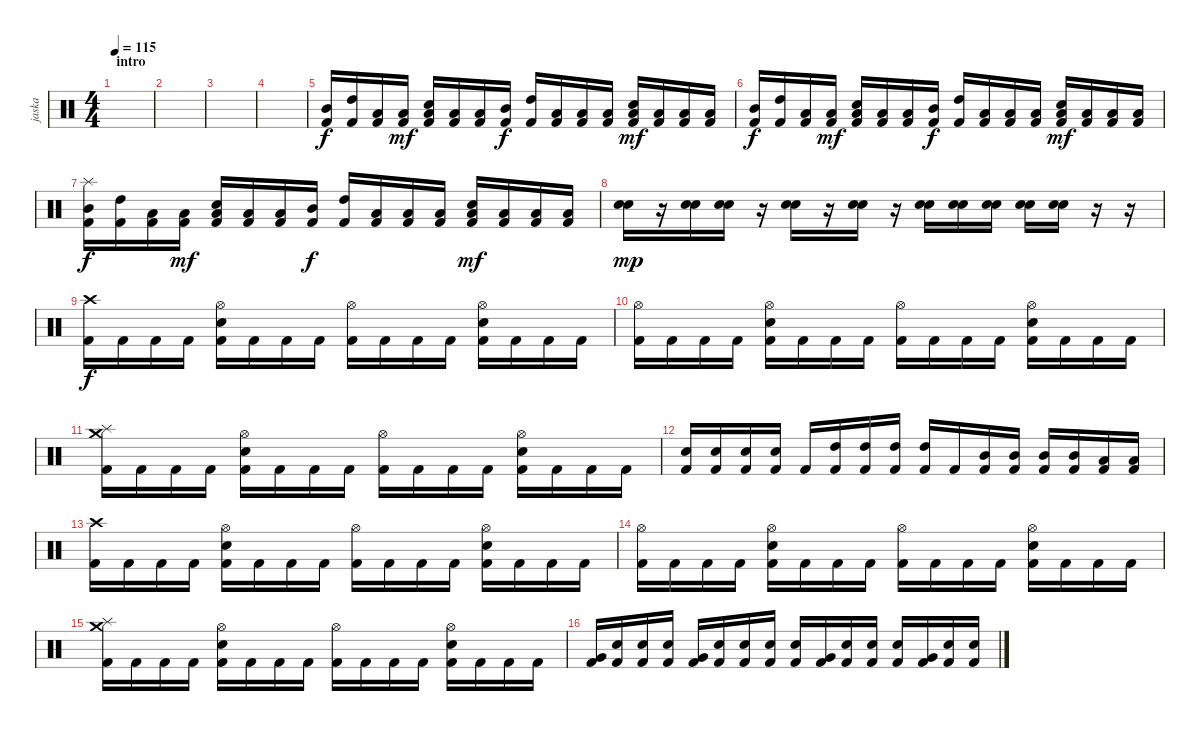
\track ("jaska" "jaska") {instrument percussion}
\staff {score}
\articulation defaults
\ts (4 4)
\section ("" "intro")
\tempo 115
\clef neutral
\ks c
|
|
|
|
("Mid Tom (hit)" "Kick (hit) 2").16 ("High Tom (hit)" "Kick (hit) 2").16 ("Low Tom (hit)" "Kick (hit) 2").16 ("Low Tom (hit)" "Kick (hit) 2").16{dy mf} ("Electric Snare (hit)" "Low Tom (hit)" "Kick (hit) 2").16 ("Low Tom (hit)" "Kick (hit) 2").16 ("Low Tom (hit)" "Kick (hit) 2").16 ("Mid Tom (hit)" "Kick (hit) 2").16{dy f} ("High Tom (hit)" "Kick (hit) 2").16 ("Low Tom (hit)" "Kick (hit) 2").16 ("Low Tom (hit)" "Kick (hit) 2").16 ("Low Tom (hit)" "Kick (hit) 2").16 ("Electric Snare (hit)" "Low Tom (hit)" "Kick (hit) 2").16{dy mf} ("Low Tom (hit)" "Kick (hit) 2").16 ("Low Tom (hit)" "Kick (hit) 2").16 ("Low Tom (hit)" "Kick (hit) 2").16 |
("Mid Tom (hit)" "Kick (hit) 2").16{dy f} ("High Tom (hit)" "Kick (hit) 2").16 ("Low Tom (hit)" "Kick (hit) 2").16 ("Low Tom (hit)" "Kick (hit) 2").16{dy mf} ("Electric Snare (hit)" "Low Tom (hit)" "Kick (hit) 2").16 ("Low Tom (hit)" "Kick (hit) 2").16 ("Low Tom (hit)" "Kick (hit) 2").16 ("Mid Tom (hit)" "Kick (hit) 2").16{dy f} ("High Tom (hit)" "Kick (hit) 2").16 ("Low Tom (hit)" "Kick (hit) 2").16 ("Low Tom (hit)" "Kick (hit) 2").16 ("Low Tom (hit)" "Kick (hit) 2").16 ("Electric Snare (hit)" "Low Tom (hit)" "Kick (hit) 2").16{dy mf} ("Low Tom (hit)" "Kick (hit) 2").16 ("Low Tom (hit)" "Kick (hit) 2").16 ("Low Tom (hit)" "Kick (hit) 2").16 |
("Splash (hit)" "Mid Tom (hit)" "Kick (hit) 2").16{dy f} ("High Tom (hit)" "Kick (hit) 2").16 ("Low Tom (hit)" "Kick (hit) 2").16 ("Low Tom (hit)" "Kick (hit) 2").16{dy mf} ("Electric Snare (hit)" "Low Tom (hit)" "Kick (hit) 2").16 ("Low Tom (hit)" "Kick (hit) 2").16 ("Low Tom (hit)" "Kick (hit) 2").16 ("Mid Tom (hit)" "Kick (hit) 2").16{dy f} ("High Tom (hit)" "Kick (hit) 2").16 ("Low Tom (hit)" "Kick (hit) 2").16 ("Low Tom (hit)" "Kick (hit) 2").16 ("Low Tom (hit)" "Kick (hit) 2").16 ("Electric Snare (hit)" "Low Tom (hit)" "Kick (hit) 2").16{dy mf} ("Low Tom (hit)" "Kick (hit) 2").16 ("Low Tom (hit)" "Kick (hit) 2").16 ("Low Tom (hit)" "Kick (hit) 2").16 |
("Snare (hit) 2" "Electric Snare (hit)").16{dy mp} r.16 ("Snare (hit) 2" "Electric Snare (hit)").16 ("Snare (hit) 2" "Electric Snare (hit)").16 r.16 ("Snare (hit) 2" "Electric Snare (hit)").16 r.16 ("Snare (hit) 2" "Electric Snare (hit)").16 r.16 ("Snare (hit) 2" "Electric Snare (hit)").16 ("Snare (hit) 2" "Electric Snare (hit)").16 ("Snare (hit) 2" "Electric Snare (hit)").16 ("Snare (hit) 2" "Electric Snare (hit)").16 ("Snare (hit) 2" "Electric Snare (hit)").16 r.16 r.16 |
("Crash high (hit)" "Kick (hit) 2").16{dy f} "Kick (hit) 2".16 "Kick (hit) 2".16 "Kick (hit) 2".16 ("Hi-Hat (open)" "Electric Snare (hit)" "Kick (hit) 2").16 "Kick (hit) 2".16 "Kick (hit) 2".16 "Kick (hit) 2".16 ("Hi-Hat (open)" "Kick (hit) 2").16 "Kick (hit) 2".16 "Kick (hit) 2".16 "Kick (hit) 2".16 ("Hi-Hat (open)" "Electric Snare (hit)" "Kick (hit) 2").16 "Kick (hit) 2".16 "Kick (hit) 2".16 "Kick (hit) 2".16 |
("Hi-Hat (open)" "Kick (hit) 2").16 "Kick (hit) 2".16 "Kick (hit) 2".16 "Kick (hit) 2".16 ("Hi-Hat (open)" "Electric Snare (hit)" "Kick (hit) 2").16 "Kick (hit) 2".16 "Kick (hit) 2".16 "Kick (hit) 2".16 ("Hi-Hat (open)" "Kick (hit) 2").16 "Kick (hit) 2".16 "Kick (hit) 2".16 "Kick (hit) 2".16 ("Hi-Hat (open)" "Electric Snare (hit)" "Kick (hit) 2").16 "Kick (hit) 2".16 "Kick (hit) 2".16 "Kick (hit) 2".16 |
("Crash medium (hit)" "Splash (hit)" "Kick (hit) 2").16 "Kick (hit) 2".16 "Kick (hit) 2".16 "Kick (hit) 2".16 ("Hi-Hat (open)" "Electric Snare (hit)" "Kick (hit) 2").16 "Kick (hit) 2".16 "Kick (hit) 2".16 "Kick (hit) 2".16 ("Hi-Hat (open)" "Kick (hit) 2").16 "Kick (hit) 2".16 "Kick (hit) 2".16 "Kick (hit) 2".16 ("Hi-Hat (open)" "Electric Snare (hit)" "Kick (hit) 2").16 "Kick (hit) 2".16 "Kick (hit) 2".16 "Kick (hit) 2".16 |
("Electric Snare (hit)" "Kick (hit) 2").16 ("Electric Snare (hit)" "Kick (hit) 2").16 ("Electric Snare (hit)" "Kick (hit) 2").16 ("Electric Snare (hit)" "Kick (hit) 2").16 "Kick (hit) 2".16 ("High Tom (hit)" "Kick (hit) 2").16 ("High Tom (hit)" "Kick (hit) 2").16 ("High Tom (hit)" "Kick (hit) 2").16 ("High Tom (hit)" "Kick (hit) 2").16 "Kick (hit) 2".16 ("Mid Tom (hit)" "Kick (hit) 2").16 ("Mid Tom (hit)" "Kick (hit) 2").16 ("Mid Tom (hit)" "Kick (hit) 2").16 ("Mid Tom (hit)" "Kick (hit) 2").16 ("Low Tom (hit)" "Kick (hit) 2").16 ("Low Tom (hit)" "Kick (hit) 2").16 |
("Crash high (hit)" "Kick (hit) 2").16 "Kick (hit) 2".16 "Kick (hit) 2".16 "Kick (hit) 2".16 ("Hi-Hat (open)" "Electric Snare (hit)" "Kick (hit) 2").16 "Kick (hit) 2".16 "Kick (hit) 2".16 "Kick (hit) 2".16 ("Hi-Hat (open)" "Kick (hit) 2").16 "Kick (hit) 2".16 "Kick (hit) 2".16 "Kick (hit) 2".16 ("Hi-Hat (open)" "Electric Snare (hit)" "Kick (hit) 2").16 "Kick (hit) 2".16 "Kick (hit) 2".16 "Kick (hit) 2".16 |
("Hi-Hat (open)" "Kick (hit) 2").16 "Kick (hit) 2".16 "Kick (hit) 2".16 "Kick (hit) 2".16 ("Hi-Hat (open)" "Electric Snare (hit)" "Kick (hit) 2").16 "Kick (hit) 2".16 "Kick (hit) 2".16 "Kick (hit) 2".16 ("Hi-Hat (open)" "Kick (hit) 2").16 "Kick (hit) 2".16 "Kick (hit) 2".16 "Kick (hit) 2".16 ("Hi-Hat (open)" "Electric Snare (hit)" "Kick (hit) 2").16 "Kick (hit) 2".16 "Kick (hit) 2".16 "Kick (hit) 2".16 |
("Crash medium (hit)" "Splash (hit)" "Kick (hit) 2").16 "Kick (hit) 2".16 "Kick (hit) 2".16 "Kick (hit) 2".16 ("Hi-Hat (open)" "Electric Snare (hit)" "Kick (hit) 2").16 "Kick (hit) 2".16 "Kick (hit) 2".16 "Kick (hit) 2".16 ("Hi-Hat (open)" "Kick (hit) 2").16 "Kick (hit) 2".16 "Kick (hit) 2".16 "Kick (hit) 2".16 ("Hi-Hat (open)" "Electric Snare (hit)" "Kick (hit) 2").16 "Kick (hit) 2".16 "Kick (hit) 2".16 "Kick (hit) 2".16 |
("Very Low Tom (hit)" "Kick (hit) 2").16 ("Electric Snare (hit)" "Kick (hit) 2").16 ("Electric Snare (hit)" "Kick (hit) 2").16 ("Electric Snare (hit)" "Kick (hit) 2").16 ("Very Low Tom (hit)" "Kick (hit) 2").16 ("Electric Snare (hit)" "Kick (hit) 2").16 ("Electric Snare (hit)" "Kick (hit) 2").16 ("Electric Snare (hit)" "Kick (hit) 2").16 ("Electric Snare (hit)" "Kick (hit) 2").16 ("Very Low Tom (hit)" "Kick (hit) 2").16 ("Electric Snare (hit)" "Kick (hit) 2").16 ("Electric Snare (hit)" "Kick (hit) 2").16 ("Electric Snare (hit)" "Kick (hit) 2").16 ("Very Low Tom (hit)" "Kick (hit) 2").16 ("Electric Snare (hit)" "Kick (hit) 2").16 ("Electric Snare (hit)" "Kick (hit) 2").16
